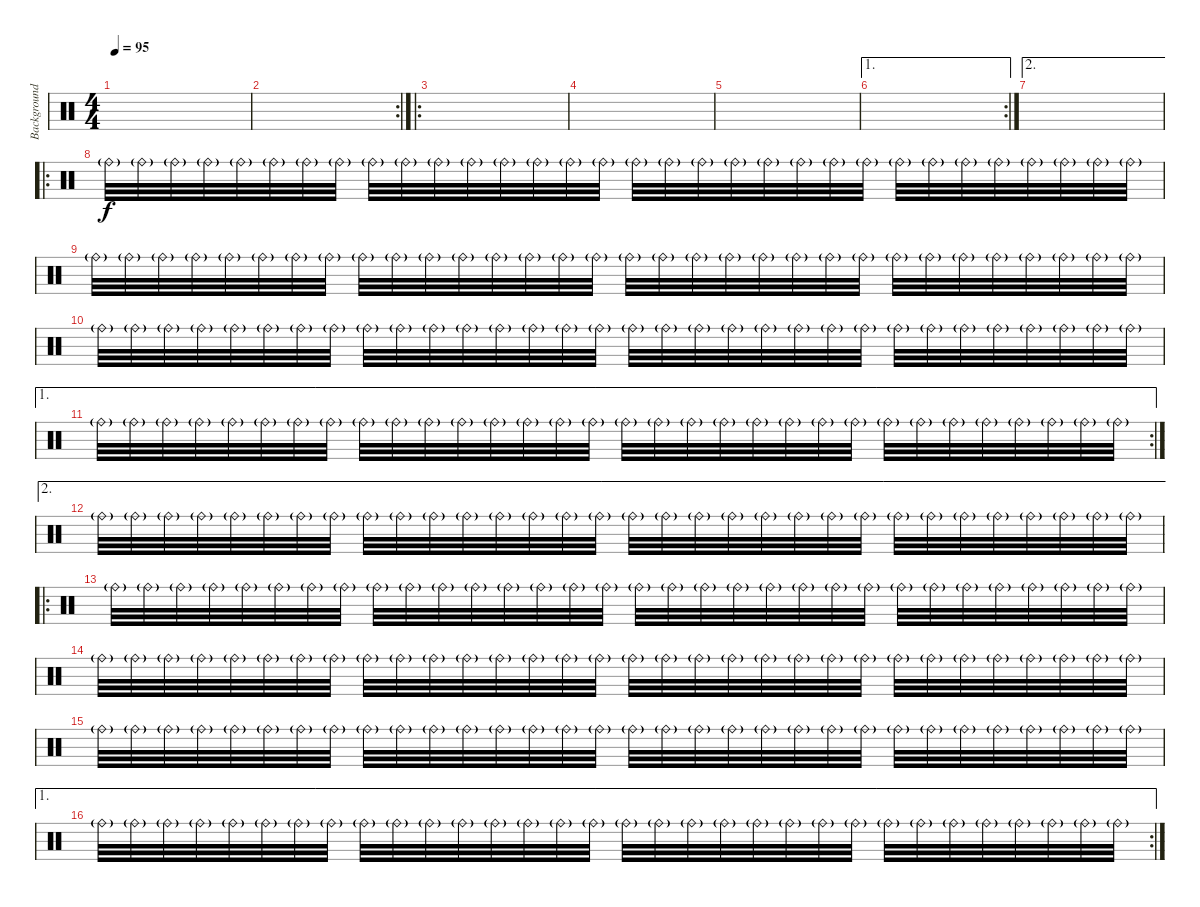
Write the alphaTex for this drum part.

\track ("Background" "Background") {instrument percussion}
\staff {score}
\articulation defaults
\ts (4 4)
\tempo 95
\clef neutral
\ks c
|
\rc 2
|
\ro
|
|
|
\ae 1
\rc 2
|
\ae 2
|
\ro "Ride (bell)"{g}.32 "Ride (bell)"{g}.32 "Ride (bell)"{g}.32 "Ride (bell)"{g}.32 "Ride (bell)"{g}.32 "Ride (bell)"{g}.32 "Ride (bell)"{g}.32 "Ride (bell)"{g}.32 "Ride (bell)"{g}.32 "Ride (bell)"{g}.32 "Ride (bell)"{g}.32 "Ride (bell)"{g}.32 "Ride (bell)"{g}.32 "Ride (bell)"{g}.32 "Ride (bell)"{g}.32 "Ride (bell)"{g}.32 "Ride (bell)"{g}.32 "Ride (bell)"{g}.32 "Ride (bell)"{g}.32 "Ride (bell)"{g}.32 "Ride (bell)"{g}.32 "Ride (bell)"{g}.32 "Ride (bell)"{g}.32 "Ride (bell)"{g}.32 "Ride (bell)"{g}.32 "Ride (bell)"{g}.32 "Ride (bell)"{g}.32 "Ride (bell)"{g}.32 "Ride (bell)"{g}.32 "Ride (bell)"{g}.32 "Ride (bell)"{g}.32 "Ride (bell)"{g}.32
|
"Ride (bell)"{g}.32 "Ride (bell)"{g}.32 "Ride (bell)"{g}.32 "Ride (bell)"{g}.32 "Ride (bell)"{g}.32 "Ride (bell)"{g}.32 "Ride (bell)"{g}.32 "Ride (bell)"{g}.32 "Ride (bell)"{g}.32 "Ride (bell)"{g}.32 "Ride (bell)"{g}.32 "Ride (bell)"{g}.32 "Ride (bell)"{g}.32 "Ride (bell)"{g}.32 "Ride (bell)"{g}.32 "Ride (bell)"{g}.32 "Ride (bell)"{g}.32 "Ride (bell)"{g}.32 "Ride (bell)"{g}.32 "Ride (bell)"{g}.32 "Ride (bell)"{g}.32 "Ride (bell)"{g}.32 "Ride (bell)"{g}.32 "Ride (bell)"{g}.32 "Ride (bell)"{g}.32 "Ride (bell)"{g}.32 "Ride (bell)"{g}.32 "Ride (bell)"{g}.32 "Ride (bell)"{g}.32 "Ride (bell)"{g}.32 "Ride (bell)"{g}.32 "Ride (bell)"{g}.32 |
"Ride (bell)"{g}.32 "Ride (bell)"{g}.32 "Ride (bell)"{g}.32 "Ride (bell)"{g}.32 "Ride (bell)"{g}.32 "Ride (bell)"{g}.32 "Ride (bell)"{g}.32 "Ride (bell)"{g}.32 "Ride (bell)"{g}.32 "Ride (bell)"{g}.32 "Ride (bell)"{g}.32 "Ride (bell)"{g}.32 "Ride (bell)"{g}.32 "Ride (bell)"{g}.32 "Ride (bell)"{g}.32 "Ride (bell)"{g}.32 "Ride (bell)"{g}.32 "Ride (bell)"{g}.32 "Ride (bell)"{g}.32 "Ride (bell)"{g}.32 "Ride (bell)"{g}.32 "Ride (bell)"{g}.32 "Ride (bell)"{g}.32 "Ride (bell)"{g}.32 "Ride (bell)"{g}.32 "Ride (bell)"{g}.32 "Ride (bell)"{g}.32 "Ride (bell)"{g}.32 "Ride (bell)"{g}.32 "Ride (bell)"{g}.32 "Ride (bell)"{g}.32 "Ride (bell)"{g}.32 |
\ae 1
\rc 2 "Ride (bell)"{g}.32 "Ride (bell)"{g}.32 "Ride (bell)"{g}.32 "Ride (bell)"{g}.32 "Ride (bell)"{g}.32 "Ride (bell)"{g}.32 "Ride (bell)"{g}.32 "Ride (bell)"{g}.32 "Ride (bell)"{g}.32 "Ride (bell)"{g}.32 "Ride (bell)"{g}.32 "Ride (bell)"{g}.32 "Ride (bell)"{g}.32 "Ride (bell)"{g}.32 "Ride (bell)"{g}.32 "Ride (bell)"{g}.32 "Ride (bell)"{g}.32 "Ride (bell)"{g}.32 "Ride (bell)"{g}.32 "Ride (bell)"{g}.32 "Ride (bell)"{g}.32 "Ride (bell)"{g}.32 "Ride (bell)"{g}.32 "Ride (bell)"{g}.32 "Ride (bell)"{g}.32 "Ride (bell)"{g}.32 "Ride (bell)"{g}.32 "Ride (bell)"{g}.32 "Ride (bell)"{g}.32 "Ride (bell)"{g}.32 "Ride (bell)"{g}.32 "Ride (bell)"{g}.32
|
\ae 2 "Ride (bell)"{g}.32 "Ride (bell)"{g}.32 "Ride (bell)"{g}.32 "Ride (bell)"{g}.32 "Ride (bell)"{g}.32 "Ride (bell)"{g}.32 "Ride (bell)"{g}.32 "Ride (bell)"{g}.32 "Ride (bell)"{g}.32 "Ride (bell)"{g}.32 "Ride (bell)"{g}.32 "Ride (bell)"{g}.32 "Ride (bell)"{g}.32 "Ride (bell)"{g}.32 "Ride (bell)"{g}.32 "Ride (bell)"{g}.32 "Ride (bell)"{g}.32 "Ride (bell)"{g}.32 "Ride (bell)"{g}.32 "Ride (bell)"{g}.32 "Ride (bell)"{g}.32 "Ride (bell)"{g}.32 "Ride (bell)"{g}.32 "Ride (bell)"{g}.32 "Ride (bell)"{g}.32 "Ride (bell)"{g}.32 "Ride (bell)"{g}.32 "Ride (bell)"{g}.32 "Ride (bell)"{g}.32 "Ride (bell)"{g}.32 "Ride (bell)"{g}.32 "Ride (bell)"{g}.32
|
\ro "Ride (bell)"{g}.32 "Ride (bell)"{g}.32 "Ride (bell)"{g}.32 "Ride (bell)"{g}.32 "Ride (bell)"{g}.32 "Ride (bell)"{g}.32 "Ride (bell)"{g}.32 "Ride (bell)"{g}.32 "Ride (bell)"{g}.32 "Ride (bell)"{g}.32 "Ride (bell)"{g}.32 "Ride (bell)"{g}.32 "Ride (bell)"{g}.32 "Ride (bell)"{g}.32 "Ride (bell)"{g}.32 "Ride (bell)"{g}.32 "Ride (bell)"{g}.32 "Ride (bell)"{g}.32 "Ride (bell)"{g}.32 "Ride (bell)"{g}.32 "Ride (bell)"{g}.32 "Ride (bell)"{g}.32 "Ride (bell)"{g}.32 "Ride (bell)"{g}.32 "Ride (bell)"{g}.32 "Ride (bell)"{g}.32 "Ride (bell)"{g}.32 "Ride (bell)"{g}.32 "Ride (bell)"{g}.32 "Ride (bell)"{g}.32 "Ride (bell)"{g}.32 "Ride (bell)"{g}.32
|
"Ride (bell)"{g}.32 "Ride (bell)"{g}.32 "Ride (bell)"{g}.32 "Ride (bell)"{g}.32 "Ride (bell)"{g}.32 "Ride (bell)"{g}.32 "Ride (bell)"{g}.32 "Ride (bell)"{g}.32 "Ride (bell)"{g}.32 "Ride (bell)"{g}.32 "Ride (bell)"{g}.32 "Ride (bell)"{g}.32 "Ride (bell)"{g}.32 "Ride (bell)"{g}.32 "Ride (bell)"{g}.32 "Ride (bell)"{g}.32 "Ride (bell)"{g}.32 "Ride (bell)"{g}.32 "Ride (bell)"{g}.32 "Ride (bell)"{g}.32 "Ride (bell)"{g}.32 "Ride (bell)"{g}.32 "Ride (bell)"{g}.32 "Ride (bell)"{g}.32 "Ride (bell)"{g}.32 "Ride (bell)"{g}.32 "Ride (bell)"{g}.32 "Ride (bell)"{g}.32 "Ride (bell)"{g}.32 "Ride (bell)"{g}.32 "Ride (bell)"{g}.32 "Ride (bell)"{g}.32 |
"Ride (bell)"{g}.32 "Ride (bell)"{g}.32 "Ride (bell)"{g}.32 "Ride (bell)"{g}.32 "Ride (bell)"{g}.32 "Ride (bell)"{g}.32 "Ride (bell)"{g}.32 "Ride (bell)"{g}.32 "Ride (bell)"{g}.32 "Ride (bell)"{g}.32 "Ride (bell)"{g}.32 "Ride (bell)"{g}.32 "Ride (bell)"{g}.32 "Ride (bell)"{g}.32 "Ride (bell)"{g}.32 "Ride (bell)"{g}.32 "Ride (bell)"{g}.32 "Ride (bell)"{g}.32 "Ride (bell)"{g}.32 "Ride (bell)"{g}.32 "Ride (bell)"{g}.32 "Ride (bell)"{g}.32 "Ride (bell)"{g}.32 "Ride (bell)"{g}.32 "Ride (bell)"{g}.32 "Ride (bell)"{g}.32 "Ride (bell)"{g}.32 "Ride (bell)"{g}.32 "Ride (bell)"{g}.32 "Ride (bell)"{g}.32 "Ride (bell)"{g}.32 "Ride (bell)"{g}.32 |
\ae 1
\rc 2 "Ride (bell)"{g}.32 "Ride (bell)"{g}.32 "Ride (bell)"{g}.32 "Ride (bell)"{g}.32 "Ride (bell)"{g}.32 "Ride (bell)"{g}.32 "Ride (bell)"{g}.32 "Ride (bell)"{g}.32 "Ride (bell)"{g}.32 "Ride (bell)"{g}.32 "Ride (bell)"{g}.32 "Ride (bell)"{g}.32 "Ride (bell)"{g}.32 "Ride (bell)"{g}.32 "Ride (bell)"{g}.32 "Ride (bell)"{g}.32 "Ride (bell)"{g}.32 "Ride (bell)"{g}.32 "Ride (bell)"{g}.32 "Ride (bell)"{g}.32 "Ride (bell)"{g}.32 "Ride (bell)"{g}.32 "Ride (bell)"{g}.32 "Ride (bell)"{g}.32 "Ride (bell)"{g}.32 "Ride (bell)"{g}.32 "Ride (bell)"{g}.32 "Ride (bell)"{g}.32 "Ride (bell)"{g}.32 "Ride (bell)"{g}.32 "Ride (bell)"{g}.32 "Ride (bell)"{g}.32
